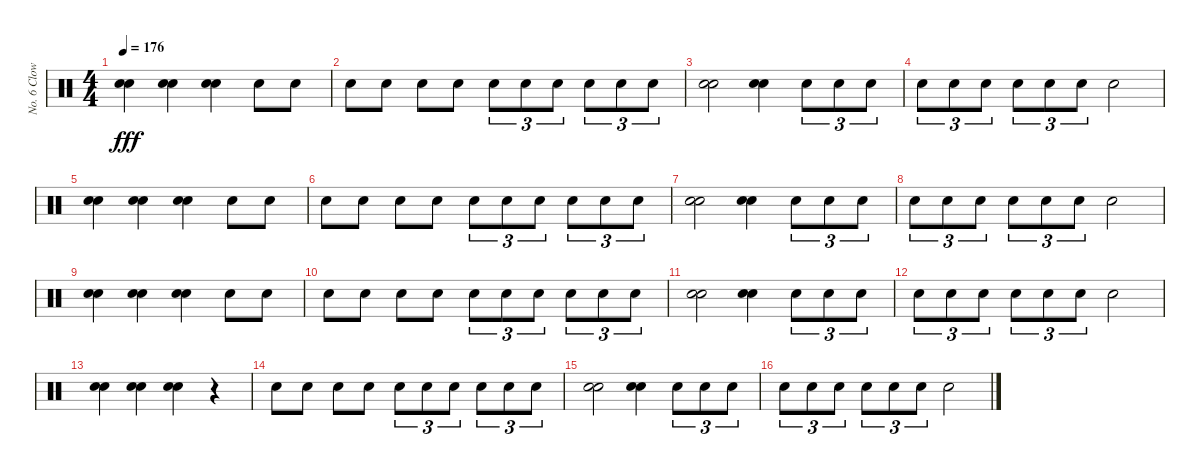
\track ("No. 6 Clown" "No. 6 Clow") {instrument percussion}
\staff {score}
\articulation defaults
\ts (4 4)
\tempo 176
\clef neutral
\ks c
("Electric Snare (hit)" "Electric Snare (hit)").4{dy fff} ("Electric Snare (hit)" "Electric Snare (hit)").4 ("Electric Snare (hit)" "Electric Snare (hit)").4 "Electric Snare (hit)".8 "Electric Snare (hit)".8 |
"Electric Snare (hit)".8 "Electric Snare (hit)".8 "Electric Snare (hit)".8 "Electric Snare (hit)".8 "Electric Snare (hit)".8{tu (3 2)} "Electric Snare (hit)".8{tu (3 2)} "Electric Snare (hit)".8{tu (3 2)} "Electric Snare (hit)".8{tu (3 2)} "Electric Snare (hit)".8{tu (3 2)} "Electric Snare (hit)".8{tu (3 2)} |
("Electric Snare (hit)" "Electric Snare (hit)").2 ("Electric Snare (hit)" "Electric Snare (hit)").4 "Electric Snare (hit)".8{tu (3 2)} "Electric Snare (hit)".8{tu (3 2)} "Electric Snare (hit)".8{tu (3 2)} |
"Electric Snare (hit)".8{tu (3 2)} "Electric Snare (hit)".8{tu (3 2)} "Electric Snare (hit)".8{tu (3 2)} "Electric Snare (hit)".8{tu (3 2)} "Electric Snare (hit)".8{tu (3 2)} "Electric Snare (hit)".8{tu (3 2)} "Electric Snare (hit)".2 |
("Electric Snare (hit)" "Electric Snare (hit)").4 ("Electric Snare (hit)" "Electric Snare (hit)").4 ("Electric Snare (hit)" "Electric Snare (hit)").4 "Electric Snare (hit)".8 "Electric Snare (hit)".8 |
"Electric Snare (hit)".8 "Electric Snare (hit)".8 "Electric Snare (hit)".8 "Electric Snare (hit)".8 "Electric Snare (hit)".8{tu (3 2)} "Electric Snare (hit)".8{tu (3 2)} "Electric Snare (hit)".8{tu (3 2)} "Electric Snare (hit)".8{tu (3 2)} "Electric Snare (hit)".8{tu (3 2)} "Electric Snare (hit)".8{tu (3 2)} |
("Electric Snare (hit)" "Electric Snare (hit)").2 ("Electric Snare (hit)" "Electric Snare (hit)").4 "Electric Snare (hit)".8{tu (3 2)} "Electric Snare (hit)".8{tu (3 2)} "Electric Snare (hit)".8{tu (3 2)} |
"Electric Snare (hit)".8{tu (3 2)} "Electric Snare (hit)".8{tu (3 2)} "Electric Snare (hit)".8{tu (3 2)} "Electric Snare (hit)".8{tu (3 2)} "Electric Snare (hit)".8{tu (3 2)} "Electric Snare (hit)".8{tu (3 2)} "Electric Snare (hit)".2 |
("Electric Snare (hit)" "Electric Snare (hit)").4 ("Electric Snare (hit)" "Electric Snare (hit)").4 ("Electric Snare (hit)" "Electric Snare (hit)").4 "Electric Snare (hit)".8 "Electric Snare (hit)".8 |
"Electric Snare (hit)".8 "Electric Snare (hit)".8 "Electric Snare (hit)".8 "Electric Snare (hit)".8 "Electric Snare (hit)".8{tu (3 2)} "Electric Snare (hit)".8{tu (3 2)} "Electric Snare (hit)".8{tu (3 2)} "Electric Snare (hit)".8{tu (3 2)} "Electric Snare (hit)".8{tu (3 2)} "Electric Snare (hit)".8{tu (3 2)} |
("Electric Snare (hit)" "Electric Snare (hit)").2 ("Electric Snare (hit)" "Electric Snare (hit)").4 "Electric Snare (hit)".8{tu (3 2)} "Electric Snare (hit)".8{tu (3 2)} "Electric Snare (hit)".8{tu (3 2)} |
"Electric Snare (hit)".8{tu (3 2)} "Electric Snare (hit)".8{tu (3 2)} "Electric Snare (hit)".8{tu (3 2)} "Electric Snare (hit)".8{tu (3 2)} "Electric Snare (hit)".8{tu (3 2)} "Electric Snare (hit)".8{tu (3 2)} "Electric Snare (hit)".2 |
("Electric Snare (hit)" "Electric Snare (hit)").4 ("Electric Snare (hit)" "Electric Snare (hit)").4 ("Electric Snare (hit)" "Electric Snare (hit)").4 r.4 |
"Electric Snare (hit)".8 "Electric Snare (hit)".8 "Electric Snare (hit)".8 "Electric Snare (hit)".8 "Electric Snare (hit)".8{tu (3 2)} "Electric Snare (hit)".8{tu (3 2)} "Electric Snare (hit)".8{tu (3 2)} "Electric Snare (hit)".8{tu (3 2)} "Electric Snare (hit)".8{tu (3 2)} "Electric Snare (hit)".8{tu (3 2)} |
("Electric Snare (hit)" "Electric Snare (hit)").2 ("Electric Snare (hit)" "Electric Snare (hit)").4 "Electric Snare (hit)".8{tu (3 2)} "Electric Snare (hit)".8{tu (3 2)} "Electric Snare (hit)".8{tu (3 2)} |
"Electric Snare (hit)".8{tu (3 2)} "Electric Snare (hit)".8{tu (3 2)} "Electric Snare (hit)".8{tu (3 2)} "Electric Snare (hit)".8{tu (3 2)} "Electric Snare (hit)".8{tu (3 2)} "Electric Snare (hit)".8{tu (3 2)} "Electric Snare (hit)".2
